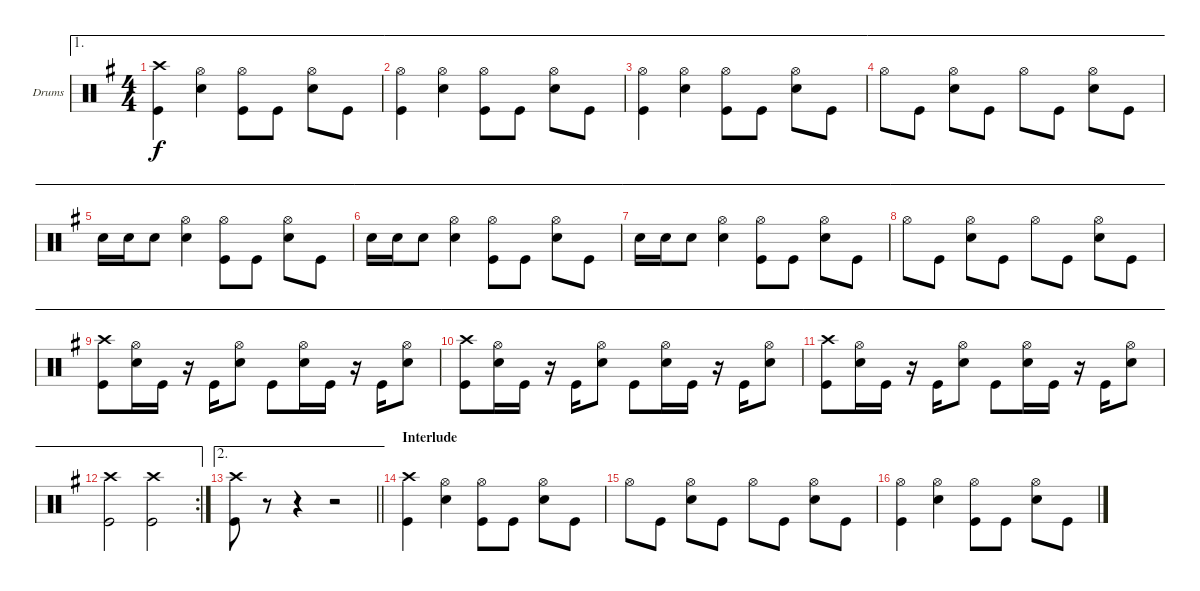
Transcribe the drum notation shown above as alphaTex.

\defaultSystemsLayout 4
\bracketExtendMode groupsimilarinstruments
\firstSystemTrackNameOrientation horizontal
\otherSystemsTrackNameOrientation horizontal
\track ("Drums" "Drums") {instrument percussion}
\staff {score}
\articulation defaults
\ae 1
\ts (4 4)
\tempo (188 hide)
\clef neutral
\ks g
("Kick (hit)" "Crash high (hit)").4{dy f} ("Snare (hit) 2" "Hi-Hat (open)").4 ("Kick (hit)" "Hi-Hat (open)").8 "Kick (hit)".8 ("Snare (hit) 2" "Hi-Hat (open)").8 "Kick (hit)".8 |
\ae 1
("Kick (hit)" "Hi-Hat (open)").4 ("Snare (hit) 2" "Hi-Hat (open)").4 ("Kick (hit)" "Hi-Hat (open)").8 "Kick (hit)".8 ("Snare (hit) 2" "Hi-Hat (open)").8 "Kick (hit)".8 |
\ae 1
("Kick (hit)" "Hi-Hat (open)").4 ("Snare (hit) 2" "Hi-Hat (open)").4 ("Kick (hit)" "Hi-Hat (open)").8 "Kick (hit)".8 ("Snare (hit) 2" "Hi-Hat (open)").8 "Kick (hit)".8 |
\ae 1 "Hi-Hat (open)".8 "Kick (hit)".8
("Snare (hit) 2" "Hi-Hat (open)").8 "Kick (hit)".8 "Hi-Hat (open)".8 "Kick (hit)".8 ("Snare (hit) 2" "Hi-Hat (open)").8 "Kick (hit)".8 |
\ae 1 "Snare (hit) 2".16 "Snare (hit) 2".16 "Snare (hit) 2".8
("Snare (hit) 2" "Hi-Hat (open)").4 ("Kick (hit)" "Hi-Hat (open)").8 "Kick (hit)".8 ("Snare (hit) 2" "Hi-Hat (open)").8 "Kick (hit)".8 |
\ae 1 "Snare (hit) 2".16 "Snare (hit) 2".16 "Snare (hit) 2".8
("Snare (hit) 2" "Hi-Hat (open)").4 ("Kick (hit)" "Hi-Hat (open)").8 "Kick (hit)".8 ("Snare (hit) 2" "Hi-Hat (open)").8 "Kick (hit)".8 |
\ae 1 "Snare (hit) 2".16 "Snare (hit) 2".16 "Snare (hit) 2".8
("Snare (hit) 2" "Hi-Hat (open)").4 ("Kick (hit)" "Hi-Hat (open)").8 "Kick (hit)".8 ("Snare (hit) 2" "Hi-Hat (open)").8 "Kick (hit)".8 |
\ae 1 "Hi-Hat (open)".8 "Kick (hit)".8
("Snare (hit) 2" "Hi-Hat (open)").8 "Kick (hit)".8 "Hi-Hat (open)".8 "Kick (hit)".8 ("Snare (hit) 2" "Hi-Hat (open)").8 "Kick (hit)".8 |
\ae 1
("Kick (hit)" "Crash high (hit)").8 ("Snare (hit) 2" "Hi-Hat (open)").16 "Kick (hit)".16 r.16 "Kick (hit)".16 ("Snare (hit) 2" "Hi-Hat (open)").8 "Kick (hit)".8 ("Snare (hit) 2" "Hi-Hat (open)").16 "Kick (hit)".16 r.16 "Kick (hit)".16 ("Snare (hit) 2" "Hi-Hat (open)").8 |
\ae 1
("Kick (hit)" "Crash high (hit)").8 ("Snare (hit) 2" "Hi-Hat (open)").16 "Kick (hit)".16 r.16 "Kick (hit)".16 ("Snare (hit) 2" "Hi-Hat (open)").8 "Kick (hit)".8 ("Snare (hit) 2" "Hi-Hat (open)").16 "Kick (hit)".16 r.16 "Kick (hit)".16 ("Snare (hit) 2" "Hi-Hat (open)").8 |
\ae 1
("Kick (hit)" "Crash high (hit)").8 ("Snare (hit) 2" "Hi-Hat (open)").16 "Kick (hit)".16 r.16 "Kick (hit)".16 ("Snare (hit) 2" "Hi-Hat (open)").8 "Kick (hit)".8 ("Snare (hit) 2" "Hi-Hat (open)").16 "Kick (hit)".16 r.16 "Kick (hit)".16 ("Snare (hit) 2" "Hi-Hat (open)").8 |
\ae 1
\rc 2
("Kick (hit)" "Crash high (hit)").2 ("Kick (hit)" "Crash high (hit)").2 |
\ae 2
\barLineRight lightlight
("Kick (hit)" "Crash high (hit)").8 r.8 r.4 r.2 |
\section ("" "Interlude")
("Kick (hit)" "Crash high (hit)").4 ("Snare (hit) 2" "Hi-Hat (open)").4 ("Kick (hit)" "Hi-Hat (open)").8 "Kick (hit)".8 ("Snare (hit) 2" "Hi-Hat (open)").8 "Kick (hit)".8 |
"Hi-Hat (open)".8 "Kick (hit)".8 ("Snare (hit) 2" "Hi-Hat (open)").8 "Kick (hit)".8 "Hi-Hat (open)".8 "Kick (hit)".8 ("Snare (hit) 2" "Hi-Hat (open)").8 "Kick (hit)".8 |
("Kick (hit)" "Hi-Hat (open)").4 ("Snare (hit) 2" "Hi-Hat (open)").4 ("Kick (hit)" "Hi-Hat (open)").8 "Kick (hit)".8 ("Snare (hit) 2" "Hi-Hat (open)").8 "Kick (hit)".8
